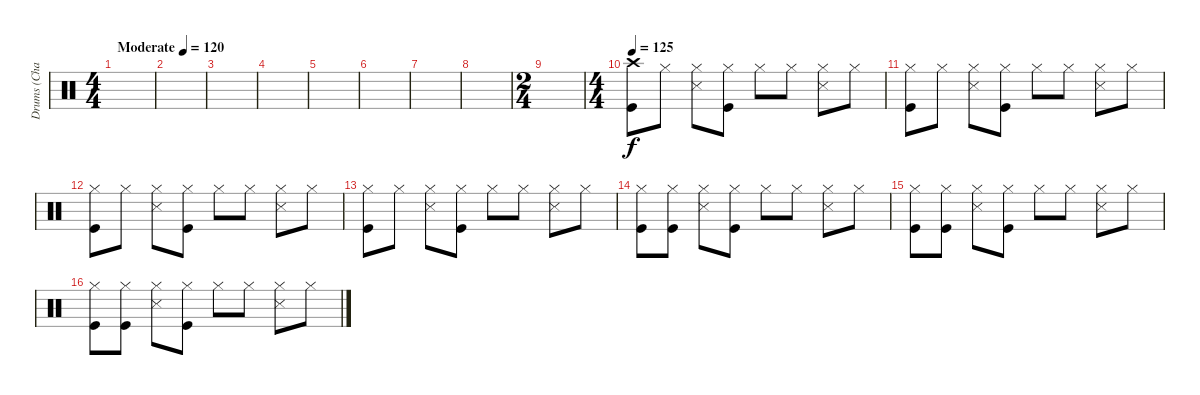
\track ("Drums (Chad Smith)" "Drums (Cha") {instrument percussion}
\staff {score}
\articulation defaults
\ts (4 4)
\tempo (120 "Moderate")
\clef neutral
\ks c
|
|
|
|
|
|
|
|
\ts (2 4)
|
\ts (4 4)
\tempo 125
("Crash high (hit)" "Kick (hit)").8 "Hi-Hat (closed)".8 ("Hi-Hat (closed)" "Snare (side stick) 3").8 ("Hi-Hat (closed)" "Kick (hit)").8 "Hi-Hat (closed)".8 "Hi-Hat (closed)".8 ("Hi-Hat (closed)" "Snare (side stick) 3").8 "Hi-Hat (closed)".8 |
("Hi-Hat (closed)" "Kick (hit)").8 "Hi-Hat (closed)".8 ("Hi-Hat (closed)" "Snare (side stick) 3").8 ("Hi-Hat (closed)" "Kick (hit)").8 "Hi-Hat (closed)".8 "Hi-Hat (closed)".8 ("Hi-Hat (closed)" "Snare (side stick) 3").8 "Hi-Hat (closed)".8 |
("Hi-Hat (closed)" "Kick (hit)").8 "Hi-Hat (closed)".8 ("Hi-Hat (closed)" "Snare (side stick) 3").8 ("Hi-Hat (closed)" "Kick (hit)").8 "Hi-Hat (closed)".8 "Hi-Hat (closed)".8 ("Hi-Hat (closed)" "Snare (side stick) 3").8 "Hi-Hat (closed)".8 |
("Hi-Hat (closed)" "Kick (hit)").8 "Hi-Hat (closed)".8 ("Hi-Hat (closed)" "Snare (side stick) 3").8 ("Hi-Hat (closed)" "Kick (hit)").8 "Hi-Hat (closed)".8 "Hi-Hat (closed)".8 ("Hi-Hat (closed)" "Snare (side stick) 3").8 "Hi-Hat (closed)".8 |
("Hi-Hat (closed)" "Kick (hit)").8 ("Hi-Hat (closed)" "Kick (hit)").8 ("Hi-Hat (closed)" "Snare (side stick) 3").8 ("Hi-Hat (closed)" "Kick (hit)").8 "Hi-Hat (closed)".8 "Hi-Hat (closed)".8 ("Hi-Hat (closed)" "Snare (side stick) 3").8 "Hi-Hat (closed)".8 |
("Hi-Hat (closed)" "Kick (hit)").8 ("Hi-Hat (closed)" "Kick (hit)").8 ("Hi-Hat (closed)" "Snare (side stick) 3").8 ("Hi-Hat (closed)" "Kick (hit)").8 "Hi-Hat (closed)".8 "Hi-Hat (closed)".8 ("Hi-Hat (closed)" "Snare (side stick) 3").8 "Hi-Hat (closed)".8 |
("Hi-Hat (closed)" "Kick (hit)").8 ("Hi-Hat (closed)" "Kick (hit)").8 ("Hi-Hat (closed)" "Snare (side stick) 3").8 ("Hi-Hat (closed)" "Kick (hit)").8 "Hi-Hat (closed)".8 "Hi-Hat (closed)".8 ("Hi-Hat (closed)" "Snare (side stick) 3").8 "Hi-Hat (closed)".8
